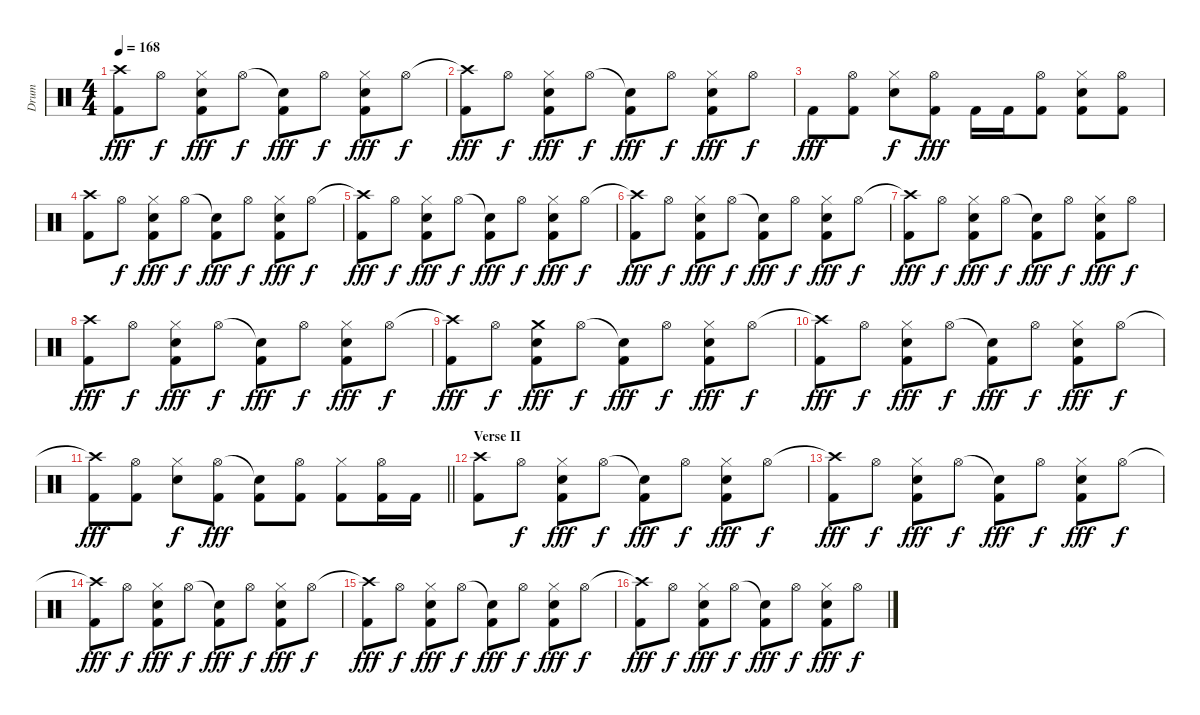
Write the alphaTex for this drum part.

\track ("Drum" "Drum") {instrument percussion}
\staff {score}
\articulation defaults
\ts (4 4)
\tempo 168
\clef neutral
\ks c
("Crash high (hit)"{t} "Kick (hit) 2").8{dy fff} "Hi-Hat (open)".8{dy f} ("Hi-Hat (closed)" "Snare (hit) 2" "Kick (hit) 2").8{dy fff} "Hi-Hat (open)".8{dy f} ("Snare (hit)"{t} "Kick (hit) 2").8{dy fff} "Hi-Hat (open)".8{dy f} ("Hi-Hat (closed)" "Snare (hit) 2" "Kick (hit) 2").8{dy fff} "Hi-Hat (open)".8{dy f} |
("Crash high (hit)"{t} "Kick (hit) 2").8{dy fff} "Hi-Hat (open)".8{dy f} ("Hi-Hat (closed)" "Snare (hit) 2" "Kick (hit) 2").8{dy fff} "Hi-Hat (open)".8{dy f} ("Snare (hit)"{t} "Kick (hit) 2").8{dy fff} "Hi-Hat (open)".8{dy f} ("Hi-Hat (closed)" "Snare (hit) 2" "Kick (hit) 2").8{dy fff} "Hi-Hat (open)".8{dy f} |
"Kick (hit) 2".8{dy fff} ("Hi-Hat (open)" "Kick (hit) 2").8 ("Hi-Hat (closed)" "Snare (hit) 2").8{dy f} ("Hi-Hat (open)" "Kick (hit) 2").8{dy fff} "Kick (hit) 2".16 "Kick (hit) 2".16 ("Hi-Hat (open)" "Kick (hit) 2").8 ("Hi-Hat (closed)" "Snare (hit) 2" "Kick (hit) 2").8 ("Hi-Hat (open)" "Kick (hit) 2").8 |
("Crash high (hit)" "Kick (hit) 2").8 "Hi-Hat (open)".8{dy f} ("Hi-Hat (closed)" "Snare (hit) 2" "Kick (hit) 2").8{dy fff} "Hi-Hat (open)".8{dy f} ("Snare (hit)"{t} "Kick (hit) 2").8{dy fff} "Hi-Hat (open)".8{dy f} ("Hi-Hat (closed)" "Snare (hit) 2" "Kick (hit) 2").8{dy fff} "Hi-Hat (open)".8{dy f} |
("Crash high (hit)"{t} "Kick (hit) 2").8{dy fff} "Hi-Hat (open)".8{dy f} ("Hi-Hat (closed)" "Snare (hit) 2" "Kick (hit) 2").8{dy fff} "Hi-Hat (open)".8{dy f} ("Snare (hit)"{t} "Kick (hit) 2").8{dy fff} "Hi-Hat (open)".8{dy f} ("Hi-Hat (closed)" "Snare (hit) 2" "Kick (hit) 2").8{dy fff} "Hi-Hat (open)".8{dy f} |
("Crash high (hit)"{t} "Kick (hit) 2").8{dy fff} "Hi-Hat (open)".8{dy f} ("Hi-Hat (closed)" "Snare (hit) 2" "Kick (hit) 2").8{dy fff} "Hi-Hat (open)".8{dy f} ("Snare (hit)"{t} "Kick (hit) 2").8{dy fff} "Hi-Hat (open)".8{dy f} ("Hi-Hat (closed)" "Snare (hit) 2" "Kick (hit) 2").8{dy fff} "Hi-Hat (open)".8{dy f} |
("Crash high (hit)"{t} "Kick (hit) 2").8{dy fff} "Hi-Hat (open)".8{dy f} ("Hi-Hat (closed)" "Snare (hit) 2" "Kick (hit) 2").8{dy fff} "Hi-Hat (open)".8{dy f} ("Snare (hit)"{t} "Kick (hit) 2").8{dy fff} "Hi-Hat (open)".8{dy f} ("Hi-Hat (closed)" "Snare (hit) 2" "Kick (hit) 2").8{dy fff} "Hi-Hat (open)".8{dy f} |
("Crash high (hit)" "Kick (hit) 2").8{dy fff} "Hi-Hat (open)".8{dy f} ("Hi-Hat (closed)" "Snare (hit) 2" "Kick (hit) 2").8{dy fff} "Hi-Hat (open)".8{dy f} ("Snare (hit)"{t} "Kick (hit) 2").8{dy fff} "Hi-Hat (open)".8{dy f} ("Hi-Hat (closed)" "Snare (hit) 2" "Kick (hit) 2").8{dy fff} "Hi-Hat (open)".8{dy f} |
("Crash high (hit)"{t} "Kick (hit) 2").8{dy fff} "Hi-Hat (open)".8{dy f} ("Crash medium (hit)" "Snare (hit) 2" "Kick (hit) 2").8{dy fff} "Hi-Hat (open)".8{dy f} ("Snare (hit)"{t} "Kick (hit) 2").8{dy fff} "Hi-Hat (open)".8{dy f} ("Hi-Hat (closed)" "Snare (hit) 2" "Kick (hit) 2").8{dy fff} "Hi-Hat (open)".8{dy f} |
("Crash high (hit)"{t} "Kick (hit) 2").8{dy fff} "Hi-Hat (open)".8{dy f} ("Hi-Hat (closed)" "Snare (hit) 2" "Kick (hit) 2").8{dy fff} "Hi-Hat (open)".8{dy f} ("Snare (hit)"{t} "Kick (hit) 2").8{dy fff} "Hi-Hat (open)".8{dy f} ("Hi-Hat (closed)" "Snare (hit) 2" "Kick (hit) 2").8{dy fff} "Hi-Hat (open)".8{dy f} |
\barLineRight lightlight
("Crash high (hit)"{t} "Kick (hit) 2").8{dy fff} ("Hi-Hat (open)" "Kick (hit) 2").8 ("Hi-Hat (closed)" "Snare (hit) 2").8{dy f} ("Hi-Hat (open)" "Kick (hit) 2").8{dy fff} ("Snare (hit)"{t} "Kick (hit) 2").8 ("Hi-Hat (open)" "Kick (hit) 2").8 ("Hi-Hat (closed)" "Kick (hit) 2").8 ("Hi-Hat (open)" "Kick (hit) 2").16 "Kick (hit) 2".16 |
\section ("" "Verse II")
("Crash high (hit)" "Kick (hit) 2").8 "Hi-Hat (open)".8{dy f} ("Hi-Hat (closed)" "Snare (hit) 2" "Kick (hit) 2").8{dy fff} "Hi-Hat (open)".8{dy f} ("Snare (hit)"{t} "Kick (hit) 2").8{dy fff} "Hi-Hat (open)".8{dy f} ("Hi-Hat (closed)" "Snare (hit) 2" "Kick (hit) 2").8{dy fff} "Hi-Hat (open)".8{dy f} |
("Crash high (hit)"{t} "Kick (hit) 2").8{dy fff} "Hi-Hat (open)".8{dy f} ("Hi-Hat (closed)" "Snare (hit) 2" "Kick (hit) 2").8{dy fff} "Hi-Hat (open)".8{dy f} ("Snare (hit)"{t} "Kick (hit) 2").8{dy fff} "Hi-Hat (open)".8{dy f} ("Hi-Hat (closed)" "Snare (hit) 2" "Kick (hit) 2").8{dy fff} "Hi-Hat (open)".8{dy f} |
("Crash high (hit)"{t} "Kick (hit) 2").8{dy fff} "Hi-Hat (open)".8{dy f} ("Hi-Hat (closed)" "Snare (hit) 2" "Kick (hit) 2").8{dy fff} "Hi-Hat (open)".8{dy f} ("Snare (hit)"{t} "Kick (hit) 2").8{dy fff} "Hi-Hat (open)".8{dy f} ("Hi-Hat (closed)" "Snare (hit) 2" "Kick (hit) 2").8{dy fff} "Hi-Hat (open)".8{dy f} |
("Crash high (hit)"{t} "Kick (hit) 2").8{dy fff} "Hi-Hat (open)".8{dy f} ("Hi-Hat (closed)" "Snare (hit) 2" "Kick (hit) 2").8{dy fff} "Hi-Hat (open)".8{dy f} ("Snare (hit)"{t} "Kick (hit) 2").8{dy fff} "Hi-Hat (open)".8{dy f} ("Hi-Hat (closed)" "Snare (hit) 2" "Kick (hit) 2").8{dy fff} "Hi-Hat (open)".8{dy f} |
("Crash high (hit)"{t} "Kick (hit) 2").8{dy fff} "Hi-Hat (open)".8{dy f} ("Hi-Hat (closed)" "Snare (hit) 2" "Kick (hit) 2").8{dy fff} "Hi-Hat (open)".8{dy f} ("Snare (hit)"{t} "Kick (hit) 2").8{dy fff} "Hi-Hat (open)".8{dy f} ("Hi-Hat (closed)" "Snare (hit) 2" "Kick (hit) 2").8{dy fff} "Hi-Hat (open)".8{dy f}
